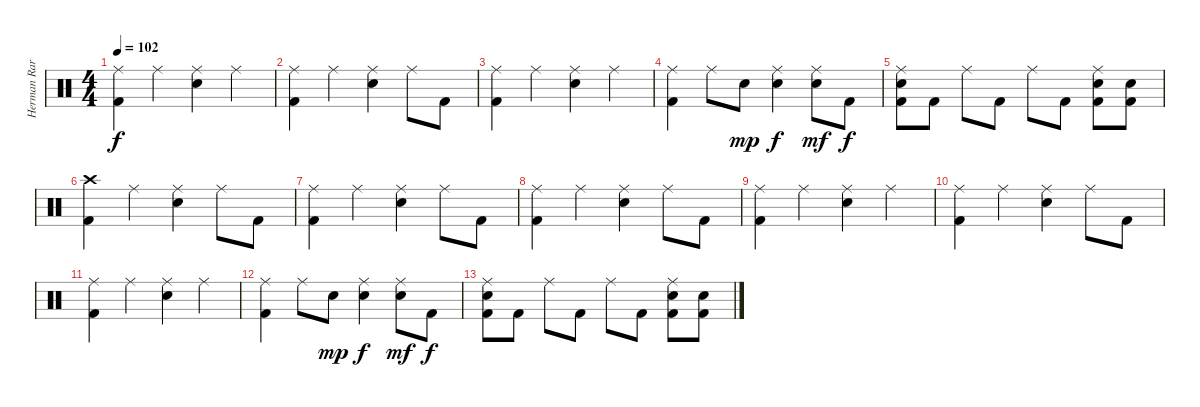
\track ("Herman Rarebell" "Herman Rar") {instrument percussion}
\staff {score}
\articulation defaults
\ts (4 4)
\tempo 102
\clef neutral
\ks c
("Ride (middle)" "Kick (hit) 2").4{dy f} "Ride (middle)".4 ("Ride (middle)" "Electric Snare (hit)").4 "Ride (middle)".4 |
("Ride (middle)" "Kick (hit) 2").4 "Ride (middle)".4 ("Ride (middle)" "Electric Snare (hit)").4 "Ride (middle)".8 "Kick (hit) 2".8 |
("Ride (middle)" "Kick (hit) 2").4 "Ride (middle)".4 ("Ride (middle)" "Electric Snare (hit)").4 "Ride (middle)".4 |
("Ride (middle)" "Kick (hit) 2").4 "Ride (middle)".8 "Electric Snare (hit)".8{dy mp} ("Ride (middle)" "Electric Snare (hit)").4{dy f} ("Ride (middle)" "Electric Snare (hit)").8{dy mf} "Kick (hit) 2".8{dy f} |
("Ride (middle)" "Electric Snare (hit)" "Kick (hit) 2").8 "Kick (hit) 2".8 "Ride (middle)".8 "Kick (hit) 2".8 "Ride (middle)".8 "Kick (hit) 2".8 ("Ride (middle)" "Electric Snare (hit)" "Kick (hit) 2").8 ("Electric Snare (hit)" "Kick (hit) 2").8 |
("Crash high (hit)" "Kick (hit) 2").4 "Ride (middle)".4 ("Ride (middle)" "Electric Snare (hit)").4 "Ride (middle)".8 "Kick (hit) 2".8 |
("Ride (middle)" "Kick (hit) 2").4 "Ride (middle)".4 ("Ride (middle)" "Electric Snare (hit)").4 "Ride (middle)".8 "Kick (hit) 2".8 |
("Ride (middle)" "Kick (hit) 2").4 "Ride (middle)".4 ("Ride (middle)" "Electric Snare (hit)").4 "Ride (middle)".8 "Kick (hit) 2".8 |
("Ride (middle)" "Kick (hit) 2").4 "Ride (middle)".4 ("Ride (middle)" "Electric Snare (hit)").4 "Ride (middle)".4 |
("Ride (middle)" "Kick (hit) 2").4 "Ride (middle)".4 ("Ride (middle)" "Electric Snare (hit)").4 "Ride (middle)".8 "Kick (hit) 2".8 |
("Ride (middle)" "Kick (hit) 2").4 "Ride (middle)".4 ("Ride (middle)" "Electric Snare (hit)").4 "Ride (middle)".4 |
("Ride (middle)" "Kick (hit) 2").4 "Ride (middle)".8 "Electric Snare (hit)".8{dy mp} ("Ride (middle)" "Electric Snare (hit)").4{dy f} ("Ride (middle)" "Electric Snare (hit)").8{dy mf} "Kick (hit) 2".8{dy f} |
("Ride (middle)" "Electric Snare (hit)" "Kick (hit) 2").8 "Kick (hit) 2".8 "Ride (middle)".8 "Kick (hit) 2".8 "Ride (middle)".8 "Kick (hit) 2".8 ("Ride (middle)" "Electric Snare (hit)" "Kick (hit) 2").8 ("Electric Snare (hit)" "Kick (hit) 2").8
